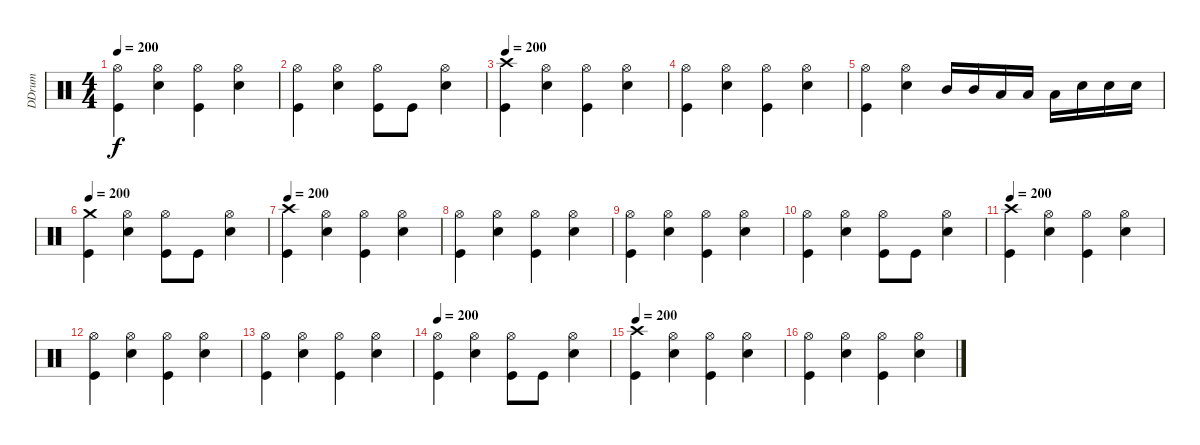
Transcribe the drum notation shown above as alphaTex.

\track ("DDrum" "DDrum") {instrument percussion}
\staff {score}
\articulation defaults
\ts (4 4)
\tempo 200
\clef neutral
\ks c
("Hi-Hat (open)" "Kick (hit)").4{dy f} ("Hi-Hat (open)" "Electric Snare (hit)").4 ("Hi-Hat (open)" "Kick (hit)").4 ("Hi-Hat (open)" "Electric Snare (hit)").4 |
("Hi-Hat (open)" "Kick (hit)").4 ("Hi-Hat (open)" "Electric Snare (hit)").4 ("Hi-Hat (open)" "Kick (hit)").8 "Kick (hit)".8 ("Hi-Hat (open)" "Electric Snare (hit)").4 |
\tempo 200
("Crash high (hit)" "Kick (hit)").4 ("Hi-Hat (open)" "Electric Snare (hit)").4 ("Hi-Hat (open)" "Kick (hit)").4 ("Hi-Hat (open)" "Electric Snare (hit)").4 |
("Hi-Hat (open)" "Kick (hit)").4 ("Hi-Hat (open)" "Electric Snare (hit)").4 ("Hi-Hat (open)" "Kick (hit)").4 ("Hi-Hat (open)" "Electric Snare (hit)").4 |
("Hi-Hat (open)" "Kick (hit)").4 ("Hi-Hat (open)" "Electric Snare (hit)").4 "Mid Tom (hit)".16 "Mid Tom (hit)".16 "Low Tom (hit)".16 "Low Tom (hit)".16 "Low Tom (hit)".16 "Electric Snare (hit)".16 "Electric Snare (hit)".16 "Electric Snare (hit)".16 |
\tempo 200
("Crash medium (hit)" "Kick (hit)").4 ("Hi-Hat (open)" "Electric Snare (hit)").4 ("Hi-Hat (open)" "Kick (hit)").8 "Kick (hit)".8 ("Hi-Hat (open)" "Electric Snare (hit)").4 |
\tempo 200
("Crash high (hit)" "Kick (hit)").4 ("Hi-Hat (open)" "Electric Snare (hit)").4 ("Hi-Hat (open)" "Kick (hit)").4 ("Hi-Hat (open)" "Electric Snare (hit)").4 |
("Hi-Hat (open)" "Kick (hit)").4 ("Hi-Hat (open)" "Electric Snare (hit)").4 ("Hi-Hat (open)" "Kick (hit)").4 ("Hi-Hat (open)" "Electric Snare (hit)").4 |
("Hi-Hat (open)" "Kick (hit)").4 ("Hi-Hat (open)" "Electric Snare (hit)").4 ("Hi-Hat (open)" "Kick (hit)").4 ("Hi-Hat (open)" "Electric Snare (hit)").4 |
("Hi-Hat (open)" "Kick (hit)").4 ("Hi-Hat (open)" "Electric Snare (hit)").4 ("Hi-Hat (open)" "Kick (hit)").8 "Kick (hit)".8 ("Hi-Hat (open)" "Electric Snare (hit)").4 |
\tempo 200
("Crash high (hit)" "Kick (hit)").4 ("Hi-Hat (open)" "Electric Snare (hit)").4 ("Hi-Hat (open)" "Kick (hit)").4 ("Hi-Hat (open)" "Electric Snare (hit)").4 |
("Hi-Hat (open)" "Kick (hit)").4 ("Hi-Hat (open)" "Electric Snare (hit)").4 ("Hi-Hat (open)" "Kick (hit)").4 ("Hi-Hat (open)" "Electric Snare (hit)").4 |
("Hi-Hat (open)" "Kick (hit)").4 ("Hi-Hat (open)" "Electric Snare (hit)").4 ("Hi-Hat (open)" "Kick (hit)").4 ("Hi-Hat (open)" "Electric Snare (hit)").4 |
\tempo 200
("Hi-Hat (open)" "Kick (hit)").4 ("Hi-Hat (open)" "Electric Snare (hit)").4 ("Hi-Hat (open)" "Kick (hit)").8 "Kick (hit)".8 ("Hi-Hat (open)" "Electric Snare (hit)").4 |
\tempo 200
("Crash high (hit)" "Kick (hit)").4 ("Hi-Hat (open)" "Electric Snare (hit)").4 ("Hi-Hat (open)" "Kick (hit)").4 ("Hi-Hat (open)" "Electric Snare (hit)").4 |
("Hi-Hat (open)" "Kick (hit)").4 ("Hi-Hat (open)" "Electric Snare (hit)").4 ("Hi-Hat (open)" "Kick (hit)").4 ("Hi-Hat (open)" "Electric Snare (hit)").4
